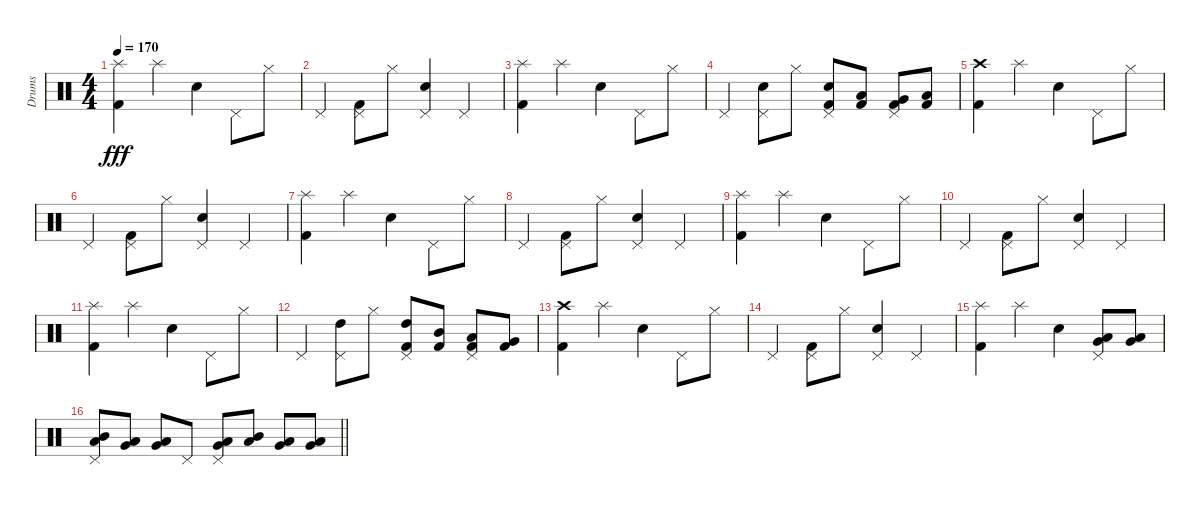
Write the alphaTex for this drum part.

\track ("Drums" "Drums") {instrument percussion}
\staff {score}
\articulation defaults
\ts (4 4)
\tempo 170
\clef neutral
\ks c
("Splash (hit)" "Kick (hit) 2").4{dy fff} "Splash (hit)".4 "Snare (hit) 2".4 "Pedal Hi-Hat (hit)".8 "Hi-Hat (closed)".8 |
"Pedal Hi-Hat (hit)".4 ("Pedal Hi-Hat (hit)" "Kick (hit) 2").8 "Hi-Hat (closed)".8 ("Pedal Hi-Hat (hit)" "Snare (hit) 2").4 "Pedal Hi-Hat (hit)".4 |
("Splash (hit)" "Kick (hit) 2").4 "Splash (hit)".4 "Snare (hit) 2".4 "Pedal Hi-Hat (hit)".8 "Hi-Hat (closed)".8 |
"Pedal Hi-Hat (hit)".4 ("Pedal Hi-Hat (hit)" "Snare (hit) 2").8 "Hi-Hat (closed)".8 ("Pedal Hi-Hat (hit)" "Snare (hit) 2" "Kick (hit) 2").8 ("Low Tom (hit)" "Kick (hit) 2").8 ("Pedal Hi-Hat (hit)" "Very Low Tom (hit)" "Kick (hit) 2").8 ("Low Floor Tom (hit)" "Kick (hit) 2").8 |
("Crash high (hit)" "Kick (hit) 2").4 "Splash (hit)".4 "Snare (hit) 2".4 "Pedal Hi-Hat (hit)".8 "Hi-Hat (closed)".8 |
"Pedal Hi-Hat (hit)".4 ("Pedal Hi-Hat (hit)" "Kick (hit) 2").8 "Hi-Hat (closed)".8 ("Pedal Hi-Hat (hit)" "Snare (hit) 2").4 "Pedal Hi-Hat (hit)".4 |
("Splash (hit)" "Kick (hit) 2").4 "Splash (hit)".4 "Snare (hit) 2".4 "Pedal Hi-Hat (hit)".8 "Hi-Hat (closed)".8 |
"Pedal Hi-Hat (hit)".4 ("Pedal Hi-Hat (hit)" "Kick (hit) 2").8 "Hi-Hat (closed)".8 ("Pedal Hi-Hat (hit)" "Snare (hit) 2").4 "Pedal Hi-Hat (hit)".4 |
("Splash (hit)" "Kick (hit) 2").4 "Splash (hit)".4 "Snare (hit) 2".4 "Pedal Hi-Hat (hit)".8 "Hi-Hat (closed)".8 |
"Pedal Hi-Hat (hit)".4 ("Pedal Hi-Hat (hit)" "Kick (hit) 2").8 "Hi-Hat (closed)".8 ("Pedal Hi-Hat (hit)" "Snare (hit) 2").4 "Pedal Hi-Hat (hit)".4 |
("Splash (hit)" "Kick (hit) 2").4 "Splash (hit)".4 "Snare (hit) 2".4 "Pedal Hi-Hat (hit)".8 "Hi-Hat (closed)".8 |
"Pedal Hi-Hat (hit)".4 ("Pedal Hi-Hat (hit)" "High Tom (hit)").8 "Hi-Hat (closed)".8 ("Pedal Hi-Hat (hit)" "High Tom (hit)" "Kick (hit) 2").8 ("Mid Tom (hit)" "Kick (hit) 2").8 ("Pedal Hi-Hat (hit)" "Low Tom (hit)" "Kick (hit) 2").8 ("Very Low Tom (hit)" "Kick (hit) 2").8 |
("Crash high (hit)" "Kick (hit) 2").4 "Splash (hit)".4 "Snare (hit) 2".4 "Pedal Hi-Hat (hit)".8 "Hi-Hat (closed)".8 |
"Pedal Hi-Hat (hit)".4 ("Pedal Hi-Hat (hit)" "Kick (hit) 2").8 "Hi-Hat (closed)".8 ("Pedal Hi-Hat (hit)" "Snare (hit) 2").4 "Pedal Hi-Hat (hit)".4 |
("Splash (hit)" "Kick (hit) 2").4 "Splash (hit)".4 "Snare (hit) 2".4 ("Pedal Hi-Hat (hit)" "Low Floor Tom (hit)" "Very Low Tom (hit)").8 ("Very Low Tom (hit)" "Low Tom (hit)").8 |
\barLineRight lightlight
("Pedal Hi-Hat (hit)" "Low Tom (hit)" "Mid Tom (hit)").8 ("Very Low Tom (hit)" "Low Tom (hit)").8 ("Low Floor Tom (hit)" "Very Low Tom (hit)").8 "Pedal Hi-Hat (hit)".8 ("Pedal Hi-Hat (hit)" "Low Tom (hit)" "Very Low Tom (hit)").8 ("Mid Tom (hit)" "Low Tom (hit)").8 ("Low Tom (hit)" "Very Low Tom (hit)").8 ("Very Low Tom (hit)" "Low Floor Tom (hit)").8
